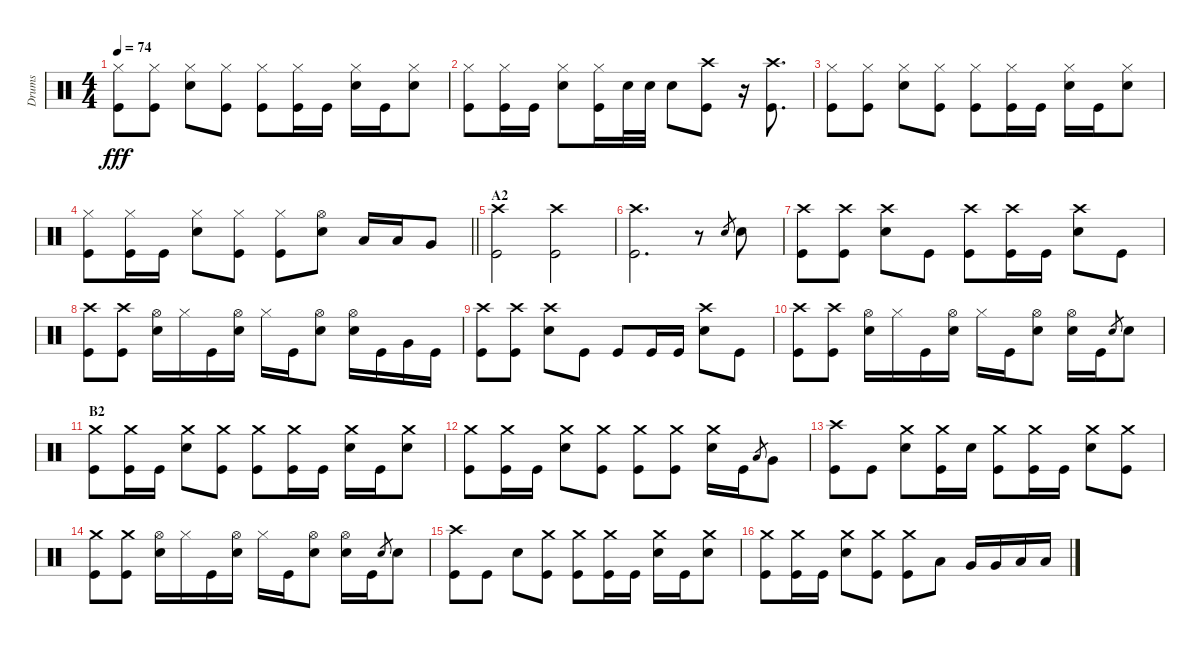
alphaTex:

\track ("Drums" "Drums") {instrument percussion}
\staff {score}
\articulation defaults
\ts (4 4)
\tempo 74
\clef neutral
\ks c
("Hi-Hat (closed)" "Kick (hit)").8{dy fff} ("Hi-Hat (closed)" "Kick (hit)").8 ("Hi-Hat (closed)" "Snare (hit) 2").8 ("Hi-Hat (closed)" "Kick (hit)").8 ("Hi-Hat (closed)" "Kick (hit)").8 ("Hi-Hat (closed)" "Kick (hit)").16 "Kick (hit)".16 ("Hi-Hat (closed)" "Snare (hit) 2").16 "Kick (hit)".16 ("Hi-Hat (closed)" "Snare (hit) 2").8 |
("Hi-Hat (closed)" "Kick (hit)").8 ("Hi-Hat (closed)" "Kick (hit)").16 "Kick (hit)".16 ("Hi-Hat (closed)" "Snare (hit) 2").8 ("Hi-Hat (closed)" "Kick (hit)").16 "Snare (hit) 2".32 "Snare (hit) 2".32 "Snare (hit) 2".8 ("Crash high (hit)" "Kick (hit)").8 r.16 ("Crash high (hit)" "Kick (hit)").8{d} |
("Hi-Hat (closed)" "Kick (hit)").8 ("Hi-Hat (closed)" "Kick (hit)").8 ("Hi-Hat (closed)" "Snare (hit) 2").8 ("Hi-Hat (closed)" "Kick (hit)").8 ("Hi-Hat (closed)" "Kick (hit)").8 ("Hi-Hat (closed)" "Kick (hit)").16 "Kick (hit)".16 ("Hi-Hat (closed)" "Snare (hit) 2").16 "Kick (hit)".16 ("Hi-Hat (closed)" "Snare (hit) 2").8 |
\barLineRight lightlight
("Hi-Hat (closed)" "Kick (hit)").8 ("Hi-Hat (closed)" "Kick (hit)").16 "Kick (hit)".16 ("Hi-Hat (closed)" "Snare (hit) 2").8 ("Hi-Hat (closed)" "Kick (hit)").8 ("Hi-Hat (closed)" "Kick (hit)").8 ("Hi-Hat (open)" "Snare (hit) 2").8 "Low Tom (hit)".16 "Low Tom (hit)".16 "Very Low Tom (hit)".8 |
\section ("" "A2")
("Crash high (hit)" "Kick (hit)").2 ("Crash high (hit)" "Kick (hit)").2 |
("Crash high (hit)" "Kick (hit)").2{d} r.8 "Snare (hit) 2".8{gr} "Snare (hit) 2".8 |
("Crash high (hit)" "Kick (hit)").8 ("Crash high (hit)" "Kick (hit)").8 ("Crash high (hit)" "Snare (hit) 2").8 "Kick (hit)".8 ("Crash high (hit)" "Kick (hit)").8 ("Crash high (hit)" "Kick (hit)").16 "Kick (hit)".16 ("Crash high (hit)" "Snare (hit) 2").8 "Kick (hit)".8 |
("Crash high (hit)" "Kick (hit)").8 ("Crash high (hit)" "Kick (hit)").8 ("Hi-Hat (open)" "Snare (hit) 2").16 "Hi-Hat (closed)".16 "Kick (hit)".16 ("Hi-Hat (open)" "Snare (hit) 2").16 "Hi-Hat (closed)".16 "Kick (hit)".16 ("Hi-Hat (open)" "Snare (hit) 2").8 ("Hi-Hat (open)" "Snare (hit) 2").16 "Kick (hit)".16 "Very Low Tom (hit)".16 "Kick (hit)".16 |
("Crash high (hit)" "Kick (hit)").8 ("Crash high (hit)" "Kick (hit)").8 ("Crash high (hit)" "Snare (hit) 2").8 "Kick (hit)".8 "Kick (hit)".8 "Kick (hit)".16 "Kick (hit)".16 ("Crash high (hit)" "Snare (hit) 2").8 "Kick (hit)".8 |
("Crash high (hit)" "Kick (hit)").8 ("Crash high (hit)" "Kick (hit)").8 ("Hi-Hat (open)" "Snare (hit) 2").16 "Hi-Hat (closed)".16 "Kick (hit)".16 ("Hi-Hat (open)" "Snare (hit) 2").16 "Hi-Hat (closed)".16 "Kick (hit)".16 ("Hi-Hat (open)" "Snare (hit) 2").8 ("Hi-Hat (open)" "Snare (hit) 2").16 "Kick (hit)".16 "Snare (hit) 2".8{gr} "Snare (hit) 2".8 |
\section ("" "B2")
("Crash medium (hit)" "Kick (hit)").8 ("Crash medium (hit)" "Kick (hit)").16 "Kick (hit)".16 ("Crash medium (hit)" "Snare (hit) 2").8 ("Crash medium (hit)" "Kick (hit)").8 ("Crash medium (hit)" "Kick (hit)").8 ("Crash medium (hit)" "Kick (hit)").16 "Kick (hit)".16 ("Crash medium (hit)" "Snare (hit) 2").16 "Kick (hit)".16 ("Crash medium (hit)" "Snare (hit) 2").8 |
("Crash medium (hit)" "Kick (hit)").8 ("Crash medium (hit)" "Kick (hit)").16 "Kick (hit)".16 ("Crash medium (hit)" "Snare (hit) 2").8 ("Crash medium (hit)" "Kick (hit)").8 ("Crash medium (hit)" "Kick (hit)").8 ("Crash medium (hit)" "Kick (hit)").8 ("Crash medium (hit)" "Snare (hit) 2").16 "Kick (hit)".16 "Low Tom (hit)".8{gr} "Very Low Tom (hit)".8 |
("Crash high (hit)" "Kick (hit)").8 "Kick (hit)".8 ("Crash medium (hit)" "Snare (hit) 2").8 ("Crash medium (hit)" "Kick (hit)").16 "Snare (hit) 2".16 ("Crash medium (hit)" "Kick (hit)").8 ("Crash medium (hit)" "Kick (hit)").16 "Kick (hit)".16 ("Crash medium (hit)" "Snare (hit) 2").8 ("Crash medium (hit)" "Kick (hit)").8 |
("Crash medium (hit)" "Kick (hit)").8 ("Crash medium (hit)" "Kick (hit)").8 ("Hi-Hat (open)" "Snare (hit) 2").16 "Hi-Hat (closed)".16 "Kick (hit)".16 ("Hi-Hat (open)" "Snare (hit) 2").16 "Hi-Hat (closed)".16 "Kick (hit)".16 ("Hi-Hat (open)" "Snare (hit) 2").8 ("Hi-Hat (open)" "Snare (hit) 2").16 "Kick (hit)".16 "Snare (hit) 2".8{gr} "Snare (hit) 2".8 |
("Crash high (hit)" "Kick (hit)").8 "Kick (hit)".8 "Snare (hit) 2".8 ("Crash medium (hit)" "Kick (hit)").8 ("Crash medium (hit)" "Kick (hit)").8 ("Crash medium (hit)" "Kick (hit)").16 "Kick (hit)".16 ("Crash medium (hit)" "Snare (hit) 2").16 "Kick (hit)".16 ("Crash medium (hit)" "Snare (hit) 2").8 |
("Crash medium (hit)" "Kick (hit)").8 ("Crash medium (hit)" "Kick (hit)").16 "Kick (hit)".16 ("Crash medium (hit)" "Snare (hit) 2").8 ("Crash medium (hit)" "Kick (hit)").8 ("Crash medium (hit)" "Kick (hit)").8 "Low Tom (hit)".8 "Very Low Tom (hit)".16 "Very Low Tom (hit)".16 "Low Floor Tom (hit)".16 "Low Floor Tom (hit)".16
